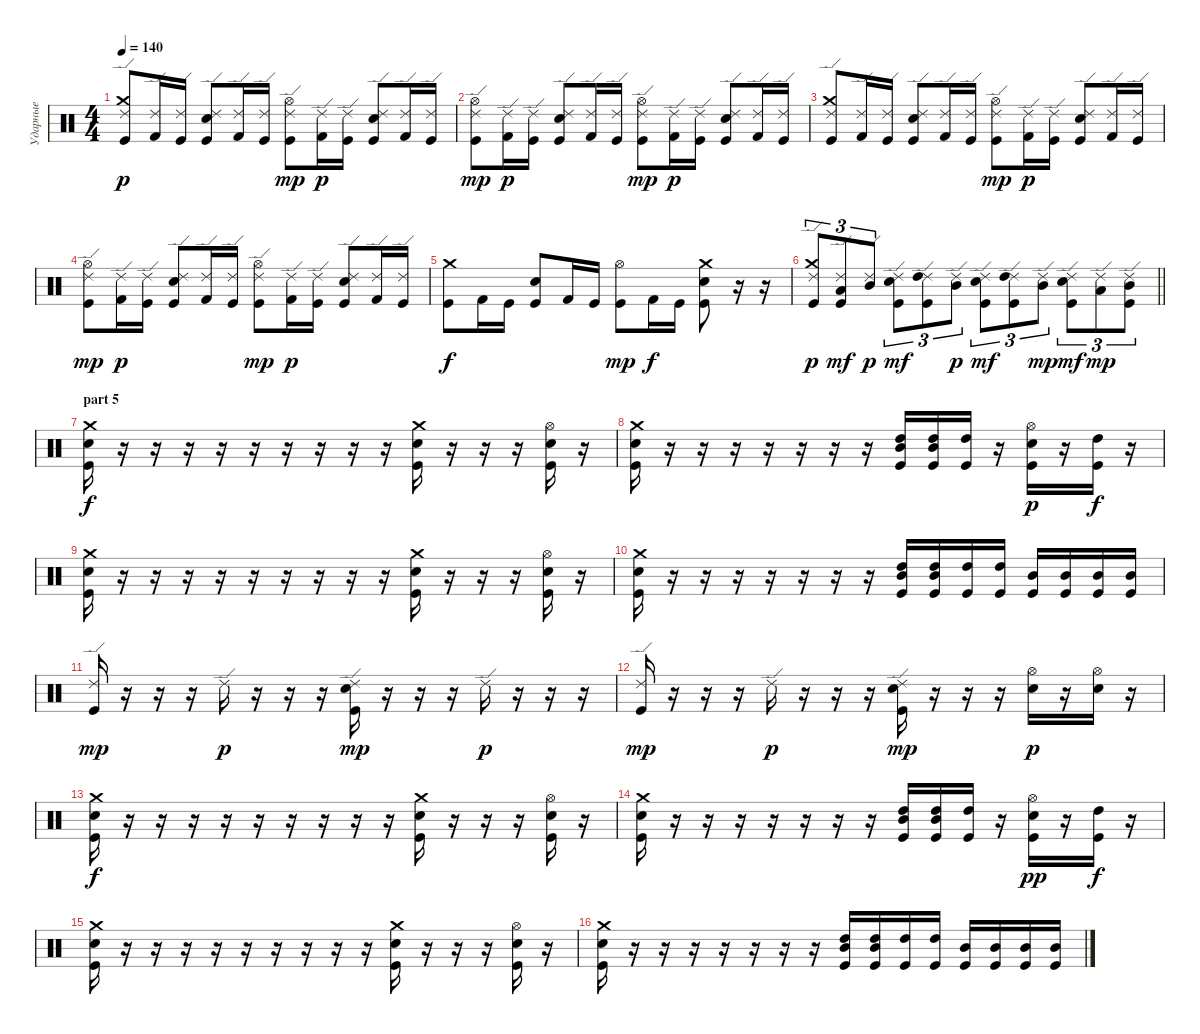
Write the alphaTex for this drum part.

\track ("Ударные" "Ударные") {instrument percussion}
\staff {score}
\articulation defaults
\ts (4 4)
\tempo 140
\clef neutral
\ks c
("Ride (edge) 2" "Crash medium (hit)" "Kick (hit)").8{dy p} ("Ride (edge) 2" "Kick (hit) 2").16 ("Ride (edge) 2" "Kick (hit)").16 ("Ride (edge) 2" "Electric Snare (hit)" "Kick (hit)").8 ("Ride (edge) 2" "Kick (hit) 2").16 ("Ride (edge) 2" "Kick (hit)").16 ("Ride (edge) 2" "Hi-Hat (open)" "Kick (hit)").8{dy mp} ("Ride (edge) 2" "Kick (hit) 2").16{dy p} ("Ride (edge) 2" "Kick (hit)").16 ("Ride (edge) 2" "Electric Snare (hit)" "Kick (hit)").8 ("Ride (edge) 2" "Kick (hit) 2").16 ("Ride (edge) 2" "Kick (hit)").16 |
("Ride (edge) 2" "Hi-Hat (open)" "Kick (hit)").8{dy mp} ("Ride (edge) 2" "Kick (hit) 2").16{dy p} ("Ride (edge) 2" "Kick (hit)").16 ("Ride (edge) 2" "Electric Snare (hit)" "Kick (hit)").8 ("Ride (edge) 2" "Kick (hit) 2").16 ("Ride (edge) 2" "Kick (hit)").16 ("Ride (edge) 2" "Hi-Hat (open)" "Kick (hit)").8{dy mp} ("Ride (edge) 2" "Kick (hit) 2").16{dy p} ("Ride (edge) 2" "Kick (hit)").16 ("Ride (edge) 2" "Electric Snare (hit)" "Kick (hit)").8 ("Ride (edge) 2" "Kick (hit) 2").16 ("Ride (edge) 2" "Kick (hit)").16 |
("Ride (edge) 2" "Crash medium (hit)" "Kick (hit)").8 ("Ride (edge) 2" "Kick (hit) 2").16 ("Ride (edge) 2" "Kick (hit)").16 ("Ride (edge) 2" "Electric Snare (hit)" "Kick (hit)").8 ("Ride (edge) 2" "Kick (hit) 2").16 ("Ride (edge) 2" "Kick (hit)").16 ("Ride (edge) 2" "Hi-Hat (open)" "Kick (hit)").8{dy mp} ("Ride (edge) 2" "Kick (hit) 2").16{dy p} ("Ride (edge) 2" "Kick (hit)").16 ("Ride (edge) 2" "Electric Snare (hit)" "Kick (hit)").8 ("Ride (edge) 2" "Kick (hit) 2").16 ("Ride (edge) 2" "Kick (hit)").16 |
("Ride (edge) 2" "Hi-Hat (open)" "Kick (hit)").8{dy mp} ("Ride (edge) 2" "Kick (hit) 2").16{dy p} ("Ride (edge) 2" "Kick (hit)").16 ("Ride (edge) 2" "Electric Snare (hit)" "Kick (hit)").8 ("Ride (edge) 2" "Kick (hit) 2").16 ("Ride (edge) 2" "Kick (hit)").16 ("Ride (edge) 2" "Hi-Hat (open)" "Kick (hit)").8{dy mp} ("Ride (edge) 2" "Kick (hit) 2").16{dy p} ("Ride (edge) 2" "Kick (hit)").16 ("Ride (edge) 2" "Electric Snare (hit)" "Kick (hit)").8 ("Ride (edge) 2" "Kick (hit) 2").16 ("Ride (edge) 2" "Kick (hit)").16 |
("Crash medium (hit)" "Kick (hit)").8{dy f} "Kick (hit) 2".16 "Kick (hit)".16 ("Electric Snare (hit)" "Kick (hit)").8 "Kick (hit) 2".16 "Kick (hit)".16 ("Hi-Hat (open)" "Kick (hit)").8{dy mp} "Kick (hit) 2".16{dy f} "Kick (hit)".16 ("Crash medium (hit)" "Electric Snare (hit)" "Kick (hit)").8 r.16 r.16 |
\barLineRight lightlight
("Ride (edge) 2" "Crash medium (hit)" "Kick (hit)").8{tu (3 2) dy p} ("Ride (edge) 2" "Low Tom (hit)" "Kick (hit)").8{tu (3 2) dy mf} ("Ride (edge) 2" "Mid Tom (hit)").8{tu (3 2) dy p} ("Ride (edge) 2" "Electric Snare (hit)" "Kick (hit)").8{tu (3 2) dy mf} ("Ride (edge) 2" "High Tom (hit)" "Kick (hit)").8{tu (3 2)} ("Ride (edge) 2" "Mid Tom (hit)").8{tu (3 2) dy p} ("Ride (edge) 2" "Electric Snare (hit)" "Kick (hit)").8{tu (3 2) dy mf} ("Ride (edge) 2" "High Tom (hit)" "Kick (hit)").8{tu (3 2)} ("Ride (edge) 2" "Mid Tom (hit)").8{tu (3 2) dy mp} ("Ride (edge) 2" "Electric Snare (hit)" "Kick (hit)").8{tu (3 2) dy mf} ("Ride (edge) 2" "Low Tom (hit)").8{tu (3 2) dy mp} ("Ride (edge) 2" "Mid Tom (hit)" "Kick (hit)").8{tu (3 2)} |
\section ("" "part 5")
("Crash medium (hit)" "Electric Snare (hit)" "Kick (hit)").16{dy f} r.16 r.16 r.16 r.16 r.16 r.16 r.16 r.16 r.16 ("Crash medium (hit)" "Electric Snare (hit)" "Kick (hit)").16 r.16 r.16 r.16 ("Hi-Hat (open)" "Electric Snare (hit)" "Kick (hit)").16 r.16 |
("Crash medium (hit)" "Electric Snare (hit)" "Kick (hit)").16 r.16 r.16 r.16 r.16 r.16 r.16 r.16 ("High Tom (hit)" "Mid Tom (hit)" "Kick (hit)").16 ("High Tom (hit)" "Mid Tom (hit)" "Kick (hit)").16 ("High Tom (hit)" "Kick (hit)").16 r.16 ("Hi-Hat (open)" "Electric Snare (hit)" "Kick (hit)").16{dy p} r.16 ("High Tom (hit)" "Kick (hit)").16{dy f} r.16 |
("Crash medium (hit)" "Electric Snare (hit)" "Kick (hit)").16 r.16 r.16 r.16 r.16 r.16 r.16 r.16 r.16 r.16 ("Crash medium (hit)" "Electric Snare (hit)" "Kick (hit)").16 r.16 r.16 r.16 ("Hi-Hat (open)" "Electric Snare (hit)" "Kick (hit)").16 r.16 |
("Crash medium (hit)" "Electric Snare (hit)" "Kick (hit)").16 r.16 r.16 r.16 r.16 r.16 r.16 r.16 ("High Tom (hit)" "Mid Tom (hit)" "Kick (hit)").16 ("High Tom (hit)" "Mid Tom (hit)" "Kick (hit)").16 ("High Tom (hit)" "Kick (hit)").16 ("High Tom (hit)" "Kick (hit)").16 ("Mid Tom (hit)" "Kick (hit)").16 ("Mid Tom (hit)" "Kick (hit)").16 ("Mid Tom (hit)" "Kick (hit)").16 ("Mid Tom (hit)" "Kick (hit)").16 |
("Ride (edge) 2" "Kick (hit)").16{dy mp} r.16 r.16 r.16 "Ride (edge) 2".16{dy p} r.16 r.16 r.16 ("Ride (edge) 2" "Electric Snare (hit)" "Kick (hit)").16{dy mp} r.16 r.16 r.16 "Ride (edge) 2".16{dy p} r.16 r.16 r.16 |
("Ride (edge) 2" "Kick (hit)").16{dy mp} r.16 r.16 r.16 "Ride (edge) 2".16{dy p} r.16 r.16 r.16 ("Ride (edge) 2" "Electric Snare (hit)" "Kick (hit)").16{dy mp} r.16 r.16 r.16 ("Hi-Hat (open)" "Electric Snare (hit)").16{dy p} r.16 ("Hi-Hat (open)" "Electric Snare (hit)").16 r.16 |
("Crash medium (hit)" "Electric Snare (hit)" "Kick (hit)").16{dy f} r.16 r.16 r.16 r.16 r.16 r.16 r.16 r.16 r.16 ("Crash medium (hit)" "Electric Snare (hit)" "Kick (hit)").16 r.16 r.16 r.16 ("Hi-Hat (open)" "Electric Snare (hit)" "Kick (hit)").16 r.16 |
("Crash medium (hit)" "Electric Snare (hit)" "Kick (hit)").16 r.16 r.16 r.16 r.16 r.16 r.16 r.16 ("High Tom (hit)" "Mid Tom (hit)" "Kick (hit)").16 ("High Tom (hit)" "Mid Tom (hit)" "Kick (hit)").16 ("High Tom (hit)" "Kick (hit)").16 r.16 ("Hi-Hat (open)" "Electric Snare (hit)" "Kick (hit)").16{dy pp} r.16 ("High Tom (hit)" "Kick (hit)").16{dy f} r.16 |
("Crash medium (hit)" "Electric Snare (hit)" "Kick (hit)").16 r.16 r.16 r.16 r.16 r.16 r.16 r.16 r.16 r.16 ("Crash medium (hit)" "Electric Snare (hit)" "Kick (hit)").16 r.16 r.16 r.16 ("Hi-Hat (open)" "Electric Snare (hit)" "Kick (hit)").16 r.16 |
("Crash medium (hit)" "Electric Snare (hit)" "Kick (hit)").16 r.16 r.16 r.16 r.16 r.16 r.16 r.16 ("High Tom (hit)" "Mid Tom (hit)" "Kick (hit)").16 ("High Tom (hit)" "Mid Tom (hit)" "Kick (hit)").16 ("High Tom (hit)" "Kick (hit)").16 ("High Tom (hit)" "Kick (hit)").16 ("Mid Tom (hit)" "Kick (hit)").16 ("Mid Tom (hit)" "Kick (hit)").16 ("Mid Tom (hit)" "Kick (hit)").16 ("Mid Tom (hit)" "Kick (hit)").16
